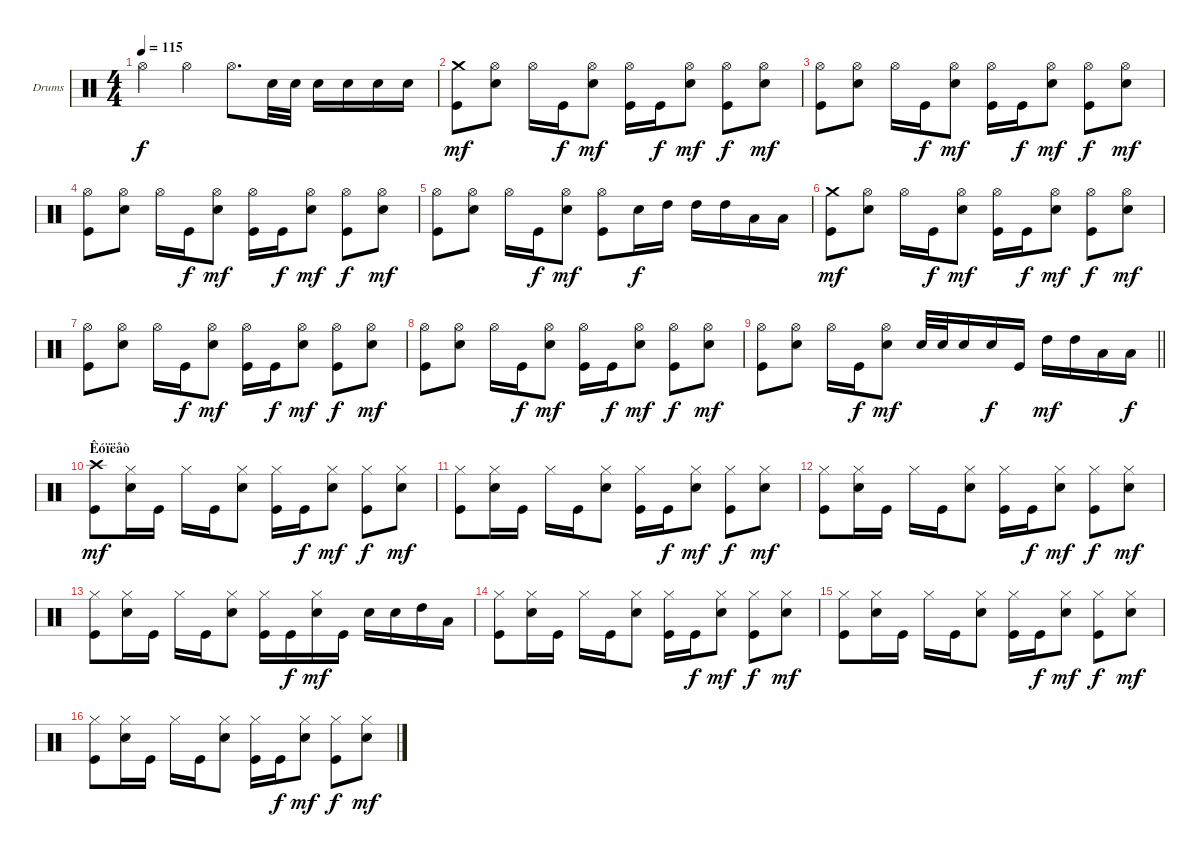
\bracketExtendMode groupsimilarinstruments
\firstSystemTrackNameOrientation horizontal
\otherSystemsTrackNameOrientation horizontal
\track ("Drumkit" "Drums") {instrument percussion}
\staff {score}
\articulation defaults
\ts (4 4)
\beaming (8 2 2 2 2)
\tempo 115
\clef neutral
\ks c "Hi-Hat (open)".4{dy f} "Hi-Hat (open)".4 "Hi-Hat (open)".8{d} "Snare (hit) 2".32 "Snare (hit) 2".32 "Snare (hit) 2".16 "Snare (hit) 2".16 "Snare (hit) 2".16 "Snare (hit) 2".16
|
("Crash medium (hit)" "Kick (hit)").8{dy mf} ("Hi-Hat (open)" "Snare (hit) 2").8 "Hi-Hat (open)".16 "Kick (hit)".16{dy f} ("Hi-Hat (open)" "Snare (hit) 2").8{dy mf} ("Hi-Hat (open)" "Kick (hit)").16 "Kick (hit)".16{dy f} ("Hi-Hat (open)" "Snare (hit) 2").8{dy mf} ("Kick (hit)" "Hi-Hat (open)").8{dy f} ("Hi-Hat (open)" "Snare (hit) 2").8{dy mf} |
("Hi-Hat (open)" "Kick (hit)").8 ("Hi-Hat (open)" "Snare (hit) 2").8 "Hi-Hat (open)".16 "Kick (hit)".16{dy f} ("Hi-Hat (open)" "Snare (hit) 2").8{dy mf} ("Hi-Hat (open)" "Kick (hit)").16 "Kick (hit)".16{dy f} ("Hi-Hat (open)" "Snare (hit) 2").8{dy mf} ("Kick (hit)" "Hi-Hat (open)").8{dy f} ("Hi-Hat (open)" "Snare (hit) 2").8{dy mf} |
("Hi-Hat (open)" "Kick (hit)").8 ("Hi-Hat (open)" "Snare (hit) 2").8 "Hi-Hat (open)".16 "Kick (hit)".16{dy f} ("Hi-Hat (open)" "Snare (hit) 2").8{dy mf} ("Hi-Hat (open)" "Kick (hit)").16 "Kick (hit)".16{dy f} ("Hi-Hat (open)" "Snare (hit) 2").8{dy mf} ("Kick (hit)" "Hi-Hat (open)").8{dy f} ("Hi-Hat (open)" "Snare (hit) 2").8{dy mf} |
("Hi-Hat (open)" "Kick (hit)").8 ("Hi-Hat (open)" "Snare (hit) 2").8 "Hi-Hat (open)".16 "Kick (hit)".16{dy f} ("Hi-Hat (open)" "Snare (hit) 2").8{dy mf} ("Hi-Hat (open)" "Kick (hit)").8 "Snare (hit) 2".16{dy f} "High Tom (hit)".16 "High Tom (hit)".16 "High Tom (hit)".16 "Low Tom (hit)".16 "Low Tom (hit)".16 |
("Crash medium (hit)" "Kick (hit)").8{dy mf} ("Hi-Hat (open)" "Snare (hit) 2").8 "Hi-Hat (open)".16 "Kick (hit)".16{dy f} ("Hi-Hat (open)" "Snare (hit) 2").8{dy mf} ("Hi-Hat (open)" "Kick (hit)").16 "Kick (hit)".16{dy f} ("Hi-Hat (open)" "Snare (hit) 2").8{dy mf} ("Kick (hit)" "Hi-Hat (open)").8{dy f} ("Hi-Hat (open)" "Snare (hit) 2").8{dy mf} |
("Hi-Hat (open)" "Kick (hit)").8 ("Hi-Hat (open)" "Snare (hit) 2").8 "Hi-Hat (open)".16 "Kick (hit)".16{dy f} ("Hi-Hat (open)" "Snare (hit) 2").8{dy mf} ("Hi-Hat (open)" "Kick (hit)").16 "Kick (hit)".16{dy f} ("Hi-Hat (open)" "Snare (hit) 2").8{dy mf} ("Kick (hit)" "Hi-Hat (open)").8{dy f} ("Hi-Hat (open)" "Snare (hit) 2").8{dy mf} |
("Hi-Hat (open)" "Kick (hit)").8 ("Hi-Hat (open)" "Snare (hit) 2").8 "Hi-Hat (open)".16 "Kick (hit)".16{dy f} ("Hi-Hat (open)" "Snare (hit) 2").8{dy mf} ("Hi-Hat (open)" "Kick (hit)").16 "Kick (hit)".16{dy f} ("Hi-Hat (open)" "Snare (hit) 2").8{dy mf} ("Kick (hit)" "Hi-Hat (open)").8{dy f} ("Hi-Hat (open)" "Snare (hit) 2").8{dy mf} |
\barLineRight lightlight
("Hi-Hat (open)" "Kick (hit)").8 ("Hi-Hat (open)" "Snare (hit) 2").8 "Hi-Hat (open)".16 "Kick (hit)".16{dy f} ("Hi-Hat (open)" "Snare (hit) 2").8{dy mf} "Snare (hit) 2".32 "Snare (hit) 2".32 "Snare (hit) 2".16 "Snare (hit) 2".16{dy f} "Kick (hit)".16 "High Tom (hit)".16{dy mf} "High Tom (hit)".16 "Low Tom (hit)".16 "Low Tom (hit)".16{dy f} |
\section ("" "Êóïëåò")
("Crash high (hit)" "Kick (hit)").8{dy mf} ("Hi-Hat (closed)" "Snare (hit) 2").16 "Kick (hit)".16 "Hi-Hat (closed)".16 "Kick (hit)".16 ("Hi-Hat (closed)" "Snare (hit) 2").8 ("Hi-Hat (closed)" "Kick (hit)").16 "Kick (hit)".16{dy f} ("Hi-Hat (closed)" "Snare (hit) 2").8{dy mf} ("Hi-Hat (closed)" "Kick (hit)").8{dy f} ("Hi-Hat (closed)" "Snare (hit) 2").8{dy mf} |
("Hi-Hat (closed)" "Kick (hit)").8 ("Hi-Hat (closed)" "Snare (hit) 2").16 "Kick (hit)".16 "Hi-Hat (closed)".16 "Kick (hit)".16 ("Hi-Hat (closed)" "Snare (hit) 2").8 ("Hi-Hat (closed)" "Kick (hit)").16 "Kick (hit)".16{dy f} ("Hi-Hat (closed)" "Snare (hit) 2").8{dy mf} ("Hi-Hat (closed)" "Kick (hit)").8{dy f} ("Hi-Hat (closed)" "Snare (hit) 2").8{dy mf} |
("Hi-Hat (closed)" "Kick (hit)").8 ("Hi-Hat (closed)" "Snare (hit) 2").16 "Kick (hit)".16 "Hi-Hat (closed)".16 "Kick (hit)".16 ("Hi-Hat (closed)" "Snare (hit) 2").8 ("Hi-Hat (closed)" "Kick (hit)").16 "Kick (hit)".16{dy f} ("Hi-Hat (closed)" "Snare (hit) 2").8{dy mf} ("Hi-Hat (closed)" "Kick (hit)").8{dy f} ("Hi-Hat (closed)" "Snare (hit) 2").8{dy mf} |
("Hi-Hat (closed)" "Kick (hit)").8 ("Hi-Hat (closed)" "Snare (hit) 2").16 "Kick (hit)".16 "Hi-Hat (closed)".16 "Kick (hit)".16 ("Hi-Hat (closed)" "Snare (hit) 2").8 ("Hi-Hat (closed)" "Kick (hit)").16 "Kick (hit)".16{dy f} ("Hi-Hat (closed)" "Snare (hit) 2").16{dy mf} "Kick (hit)".16 "Snare (hit) 2".16 "Snare (hit) 2".16 "High Tom (hit)".16 "Low Tom (hit)".16 |
("Hi-Hat (closed)" "Kick (hit)").8 ("Hi-Hat (closed)" "Snare (hit) 2").16 "Kick (hit)".16 "Hi-Hat (closed)".16 "Kick (hit)".16 ("Hi-Hat (closed)" "Snare (hit) 2").8 ("Hi-Hat (closed)" "Kick (hit)").16 "Kick (hit)".16{dy f} ("Hi-Hat (closed)" "Snare (hit) 2").8{dy mf} ("Hi-Hat (closed)" "Kick (hit)").8{dy f} ("Hi-Hat (closed)" "Snare (hit) 2").8{dy mf} |
("Hi-Hat (closed)" "Kick (hit)").8 ("Hi-Hat (closed)" "Snare (hit) 2").16 "Kick (hit)".16 "Hi-Hat (closed)".16 "Kick (hit)".16 ("Hi-Hat (closed)" "Snare (hit) 2").8 ("Hi-Hat (closed)" "Kick (hit)").16 "Kick (hit)".16{dy f} ("Hi-Hat (closed)" "Snare (hit) 2").8{dy mf} ("Hi-Hat (closed)" "Kick (hit)").8{dy f} ("Hi-Hat (closed)" "Snare (hit) 2").8{dy mf} |
("Hi-Hat (closed)" "Kick (hit)").8 ("Hi-Hat (closed)" "Snare (hit) 2").16 "Kick (hit)".16 "Hi-Hat (closed)".16 "Kick (hit)".16 ("Hi-Hat (closed)" "Snare (hit) 2").8 ("Hi-Hat (closed)" "Kick (hit)").16 "Kick (hit)".16{dy f} ("Hi-Hat (closed)" "Snare (hit) 2").8{dy mf} ("Hi-Hat (closed)" "Kick (hit)").8{dy f} ("Hi-Hat (closed)" "Snare (hit) 2").8{dy mf}
